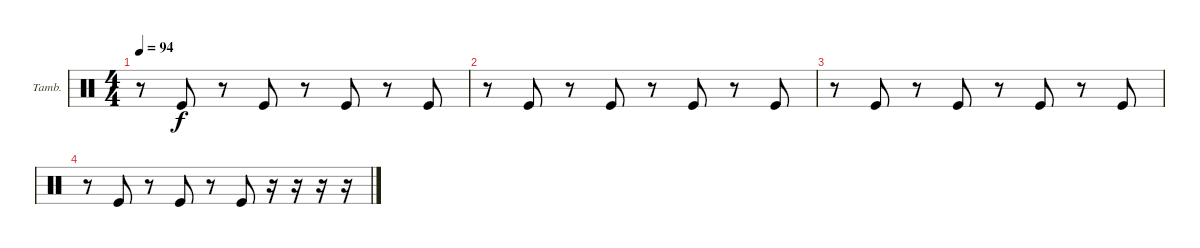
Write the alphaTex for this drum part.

\defaultSystemsLayout 4
\bracketExtendMode groupsimilarinstruments
\firstSystemTrackNameOrientation horizontal
\otherSystemsTrackNameOrientation horizontal
\track ("Tambourine" "Tamb.") {instrument percussion}
\staff {score}
\articulation defaults
\ts (4 4)
\tempo 94
\clef neutral
\scale
0.333333
\ks c
r.8{dy f} "Kick (hit)".8 r.8 "Kick (hit)".8 r.8 "Kick (hit)".8 r.8 "Kick (hit)".8 |
r.8 "Kick (hit)".8 r.8 "Kick (hit)".8 r.8 "Kick (hit)".8 r.8 "Kick (hit)".8 |
r.8 "Kick (hit)".8 r.8 "Kick (hit)".8 r.8 "Kick (hit)".8 r.8 "Kick (hit)".8 |
r.8 "Kick (hit)".8 r.8 "Kick (hit)".8 r.8 "Kick (hit)".8 r.16 r.16 r.16 r.16
